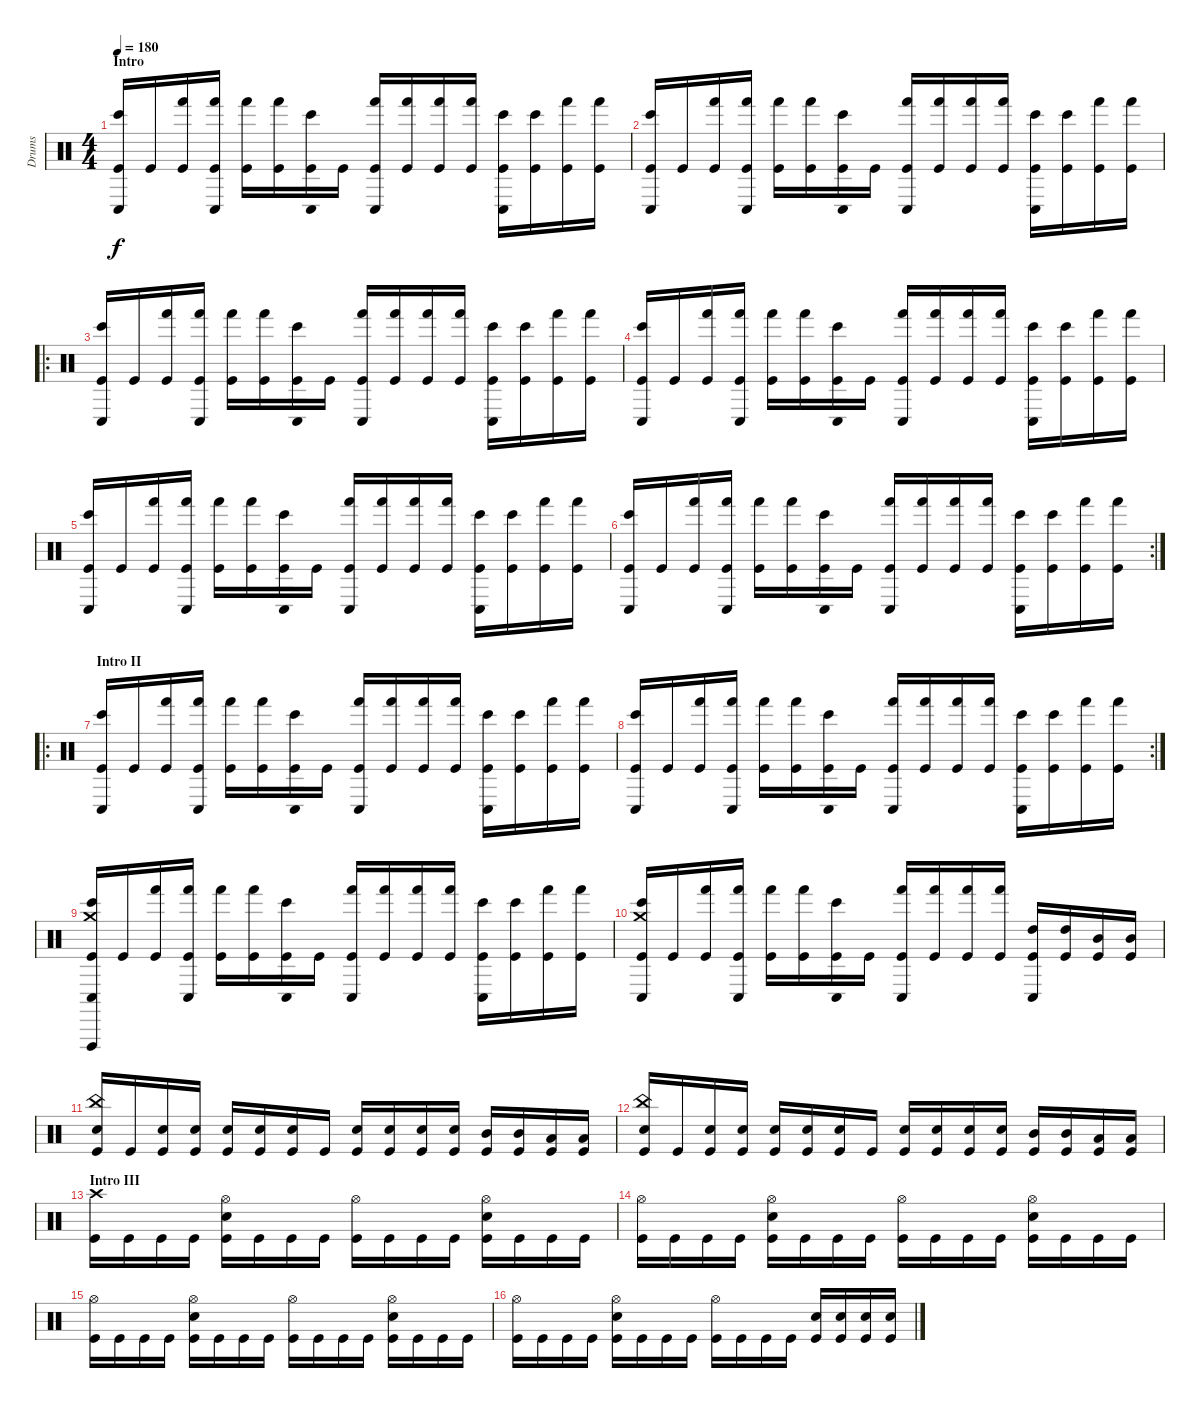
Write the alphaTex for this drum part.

\track ("Drums" "Drums") {instrument percussion}
\staff {score}
\articulation defaults
\ts (4 4)
\section ("" "Intro")
\tempo 180
\clef neutral
\ks c
("Bongo High (hit)" "Conga low (hit)" "Kick (hit)").16{dy f} "Kick (hit)".16 ("Hand (hit)" "Kick (hit)").16 ("Hand (hit)" "Conga low (hit)" "Kick (hit)").16 ("Hand (hit)" "Kick (hit)").16 ("Hand (hit)" "Kick (hit)").16 ("Bongo High (hit)" "Conga low (hit)" "Kick (hit)").16 "Kick (hit)".16 ("Hand (hit)" "Conga low (hit)" "Kick (hit)").16 ("Hand (hit)" "Kick (hit)").16 ("Hand (hit)" "Kick (hit)").16 ("Hand (hit)" "Kick (hit)").16 ("Bongo High (hit)" "Conga low (hit)" "Kick (hit)").16 ("Bongo High (hit)" "Kick (hit)").16 ("Hand (hit)" "Kick (hit)").16 ("Hand (hit)" "Kick (hit)").16 |
("Bongo High (hit)" "Conga low (hit)" "Kick (hit)").16 "Kick (hit)".16 ("Hand (hit)" "Kick (hit)").16 ("Hand (hit)" "Conga low (hit)" "Kick (hit)").16 ("Hand (hit)" "Kick (hit)").16 ("Hand (hit)" "Kick (hit)").16 ("Bongo High (hit)" "Conga low (hit)" "Kick (hit)").16 "Kick (hit)".16 ("Hand (hit)" "Conga low (hit)" "Kick (hit)").16 ("Hand (hit)" "Kick (hit)").16 ("Hand (hit)" "Kick (hit)").16 ("Hand (hit)" "Kick (hit)").16 ("Bongo High (hit)" "Conga low (hit)" "Kick (hit)").16 ("Bongo High (hit)" "Kick (hit)").16 ("Hand (hit)" "Kick (hit)").16 ("Hand (hit)" "Kick (hit)").16 |
\ro
("Bongo High (hit)" "Conga low (hit)" "Kick (hit)").16 "Kick (hit)".16 ("Hand (hit)" "Kick (hit)").16 ("Hand (hit)" "Conga low (hit)" "Kick (hit)").16 ("Hand (hit)" "Kick (hit)").16 ("Hand (hit)" "Kick (hit)").16 ("Bongo High (hit)" "Conga low (hit)" "Kick (hit)").16 "Kick (hit)".16 ("Hand (hit)" "Conga low (hit)" "Kick (hit)").16 ("Hand (hit)" "Kick (hit)").16 ("Hand (hit)" "Kick (hit)").16 ("Hand (hit)" "Kick (hit)").16 ("Bongo High (hit)" "Conga low (hit)" "Kick (hit)").16 ("Bongo High (hit)" "Kick (hit)").16 ("Hand (hit)" "Kick (hit)").16 ("Hand (hit)" "Kick (hit)").16 |
("Bongo High (hit)" "Conga low (hit)" "Kick (hit)").16 "Kick (hit)".16 ("Hand (hit)" "Kick (hit)").16 ("Hand (hit)" "Conga low (hit)" "Kick (hit)").16 ("Hand (hit)" "Kick (hit)").16 ("Hand (hit)" "Kick (hit)").16 ("Bongo High (hit)" "Conga low (hit)" "Kick (hit)").16 "Kick (hit)".16 ("Hand (hit)" "Conga low (hit)" "Kick (hit)").16 ("Hand (hit)" "Kick (hit)").16 ("Hand (hit)" "Kick (hit)").16 ("Hand (hit)" "Kick (hit)").16 ("Bongo High (hit)" "Conga low (hit)" "Kick (hit)").16 ("Bongo High (hit)" "Kick (hit)").16 ("Hand (hit)" "Kick (hit)").16 ("Hand (hit)" "Kick (hit)").16 |
("Bongo High (hit)" "Conga low (hit)" "Kick (hit)").16 "Kick (hit)".16 ("Hand (hit)" "Kick (hit)").16 ("Hand (hit)" "Conga low (hit)" "Kick (hit)").16 ("Hand (hit)" "Kick (hit)").16 ("Hand (hit)" "Kick (hit)").16 ("Bongo High (hit)" "Conga low (hit)" "Kick (hit)").16 "Kick (hit)".16 ("Hand (hit)" "Conga low (hit)" "Kick (hit)").16 ("Hand (hit)" "Kick (hit)").16 ("Hand (hit)" "Kick (hit)").16 ("Hand (hit)" "Kick (hit)").16 ("Bongo High (hit)" "Conga low (hit)" "Kick (hit)").16 ("Bongo High (hit)" "Kick (hit)").16 ("Hand (hit)" "Kick (hit)").16 ("Hand (hit)" "Kick (hit)").16 |
\rc 2
("Bongo High (hit)" "Conga low (hit)" "Kick (hit)").16 "Kick (hit)".16 ("Hand (hit)" "Kick (hit)").16 ("Hand (hit)" "Conga low (hit)" "Kick (hit)").16 ("Hand (hit)" "Kick (hit)").16 ("Hand (hit)" "Kick (hit)").16 ("Bongo High (hit)" "Conga low (hit)" "Kick (hit)").16 "Kick (hit)".16 ("Hand (hit)" "Conga low (hit)" "Kick (hit)").16 ("Hand (hit)" "Kick (hit)").16 ("Hand (hit)" "Kick (hit)").16 ("Hand (hit)" "Kick (hit)").16 ("Bongo High (hit)" "Conga low (hit)" "Kick (hit)").16 ("Bongo High (hit)" "Kick (hit)").16 ("Hand (hit)" "Kick (hit)").16 ("Hand (hit)" "Kick (hit)").16 |
\ro
\section ("" "Intro II")
("Bongo High (hit)" "Conga low (hit)" "Kick (hit)").16 "Kick (hit)".16 ("Hand (hit)" "Kick (hit)").16 ("Hand (hit)" "Conga low (hit)" "Kick (hit)").16 ("Hand (hit)" "Kick (hit)").16 ("Hand (hit)" "Kick (hit)").16 ("Bongo High (hit)" "Conga low (hit)" "Kick (hit)").16 "Kick (hit)".16 ("Hand (hit)" "Conga low (hit)" "Kick (hit)").16 ("Hand (hit)" "Kick (hit)").16 ("Hand (hit)" "Kick (hit)").16 ("Hand (hit)" "Kick (hit)").16 ("Bongo High (hit)" "Conga low (hit)" "Kick (hit)").16 ("Bongo High (hit)" "Kick (hit)").16 ("Hand (hit)" "Kick (hit)").16 ("Hand (hit)" "Kick (hit)").16 |
\rc 2
("Bongo High (hit)" "Conga low (hit)" "Kick (hit)").16 "Kick (hit)".16 ("Hand (hit)" "Kick (hit)").16 ("Hand (hit)" "Conga low (hit)" "Kick (hit)").16 ("Hand (hit)" "Kick (hit)").16 ("Hand (hit)" "Kick (hit)").16 ("Bongo High (hit)" "Conga low (hit)" "Kick (hit)").16 "Kick (hit)".16 ("Hand (hit)" "Conga low (hit)" "Kick (hit)").16 ("Hand (hit)" "Kick (hit)").16 ("Hand (hit)" "Kick (hit)").16 ("Hand (hit)" "Kick (hit)").16 ("Bongo High (hit)" "Conga low (hit)" "Kick (hit)").16 ("Bongo High (hit)" "Kick (hit)").16 ("Hand (hit)" "Kick (hit)").16 ("Hand (hit)" "Kick (hit)").16 |
("Crash medium (hit)" "Vibraslap (hit)" "Bongo High (hit)" "Conga low (hit)" "Kick (hit)").16 "Kick (hit)".16 ("Hand (hit)" "Kick (hit)").16 ("Hand (hit)" "Conga low (hit)" "Kick (hit)").16 ("Hand (hit)" "Kick (hit)").16 ("Hand (hit)" "Kick (hit)").16 ("Bongo High (hit)" "Conga low (hit)" "Kick (hit)").16 "Kick (hit)".16 ("Hand (hit)" "Conga low (hit)" "Kick (hit)").16 ("Hand (hit)" "Kick (hit)").16 ("Hand (hit)" "Kick (hit)").16 ("Hand (hit)" "Kick (hit)").16 ("Bongo High (hit)" "Conga low (hit)" "Kick (hit)").16 ("Bongo High (hit)" "Kick (hit)").16 ("Hand (hit)" "Kick (hit)").16 ("Hand (hit)" "Kick (hit)").16 |
("Crash medium (hit)" "Bongo High (hit)" "Conga low (hit)" "Kick (hit)").16 "Kick (hit)".16 ("Hand (hit)" "Kick (hit)").16 ("Hand (hit)" "Conga low (hit)" "Kick (hit)").16 ("Hand (hit)" "Kick (hit)").16 ("Hand (hit)" "Kick (hit)").16 ("Bongo High (hit)" "Conga low (hit)" "Kick (hit)").16 "Kick (hit)".16 ("Hand (hit)" "Conga low (hit)" "Kick (hit)").16 ("Hand (hit)" "Kick (hit)").16 ("Hand (hit)" "Kick (hit)").16 ("Hand (hit)" "Kick (hit)").16 ("High Tom (hit)" "Conga low (hit)" "Kick (hit)").16 ("High Tom (hit)" "Kick (hit)").16 ("Mid Tom (hit)" "Kick (hit)").16 ("Mid Tom (hit)" "Kick (hit)").16 |
("China (hit)" "Snare (hit) 2" "Kick (hit)").16 "Kick (hit)".16 ("Snare (hit) 2" "Kick (hit)").16 ("Snare (hit) 2" "Kick (hit)").16 ("Snare (hit) 2" "Kick (hit)").16 ("Snare (hit) 2" "Kick (hit)").16 ("Snare (hit) 2" "Kick (hit)").16 "Kick (hit)".16 ("Snare (hit) 2" "Kick (hit)").16 ("Snare (hit) 2" "Kick (hit)").16 ("Snare (hit) 2" "Kick (hit)").16 ("Snare (hit) 2" "Kick (hit)").16 ("Mid Tom (hit)" "Kick (hit)").16 ("Mid Tom (hit)" "Kick (hit)").16 ("Low Tom (hit)" "Kick (hit)").16 ("Low Tom (hit)" "Kick (hit)").16 |
("China (hit)" "Snare (hit) 2" "Kick (hit)").16 "Kick (hit)".16 ("Snare (hit) 2" "Kick (hit)").16 ("Snare (hit) 2" "Kick (hit)").16 ("Snare (hit) 2" "Kick (hit)").16 ("Snare (hit) 2" "Kick (hit)").16 ("Snare (hit) 2" "Kick (hit)").16 "Kick (hit)".16 ("Snare (hit) 2" "Kick (hit)").16 ("Snare (hit) 2" "Kick (hit)").16 ("Snare (hit) 2" "Kick (hit)").16 ("Snare (hit) 2" "Kick (hit)").16 ("Mid Tom (hit)" "Kick (hit)").16 ("Mid Tom (hit)" "Kick (hit)").16 ("Low Tom (hit)" "Kick (hit)").16 ("Low Tom (hit)" "Kick (hit)").16 |
\section ("" "Intro III")
("Crash high (hit)" "Kick (hit)").16 "Kick (hit)".16 "Kick (hit)".16 "Kick (hit)".16 ("Hi-Hat (open)" "Snare (hit) 2" "Kick (hit)").16 "Kick (hit)".16 "Kick (hit)".16 "Kick (hit)".16 ("Hi-Hat (open)" "Kick (hit)").16 "Kick (hit)".16 "Kick (hit)".16 "Kick (hit)".16 ("Hi-Hat (open)" "Snare (hit) 2" "Kick (hit)").16 "Kick (hit)".16 "Kick (hit)".16 "Kick (hit)".16 |
("Hi-Hat (open)" "Kick (hit)").16 "Kick (hit)".16 "Kick (hit)".16 "Kick (hit)".16 ("Hi-Hat (open)" "Snare (hit) 2" "Kick (hit)").16 "Kick (hit)".16 "Kick (hit)".16 "Kick (hit)".16 ("Hi-Hat (open)" "Kick (hit)").16 "Kick (hit)".16 "Kick (hit)".16 "Kick (hit)".16 ("Hi-Hat (open)" "Snare (hit) 2" "Kick (hit)").16 "Kick (hit)".16 "Kick (hit)".16 "Kick (hit)".16 |
("Hi-Hat (open)" "Kick (hit)").16 "Kick (hit)".16 "Kick (hit)".16 "Kick (hit)".16 ("Hi-Hat (open)" "Snare (hit) 2" "Kick (hit)").16 "Kick (hit)".16 "Kick (hit)".16 "Kick (hit)".16 ("Hi-Hat (open)" "Kick (hit)").16 "Kick (hit)".16 "Kick (hit)".16 "Kick (hit)".16 ("Hi-Hat (open)" "Snare (hit) 2" "Kick (hit)").16 "Kick (hit)".16 "Kick (hit)".16 "Kick (hit)".16 |
("Hi-Hat (open)" "Kick (hit)").16 "Kick (hit)".16 "Kick (hit)".16 "Kick (hit)".16 ("Hi-Hat (open)" "Snare (hit) 2" "Kick (hit)").16 "Kick (hit)".16 "Kick (hit)".16 "Kick (hit)".16 ("Hi-Hat (open)" "Kick (hit)").16 "Kick (hit)".16 "Kick (hit)".16 "Kick (hit)".16 ("Snare (hit) 2" "Kick (hit)").16 ("Snare (hit) 2" "Kick (hit)").16 ("Snare (hit) 2" "Kick (hit)").16 ("Snare (hit) 2" "Kick (hit)").16
